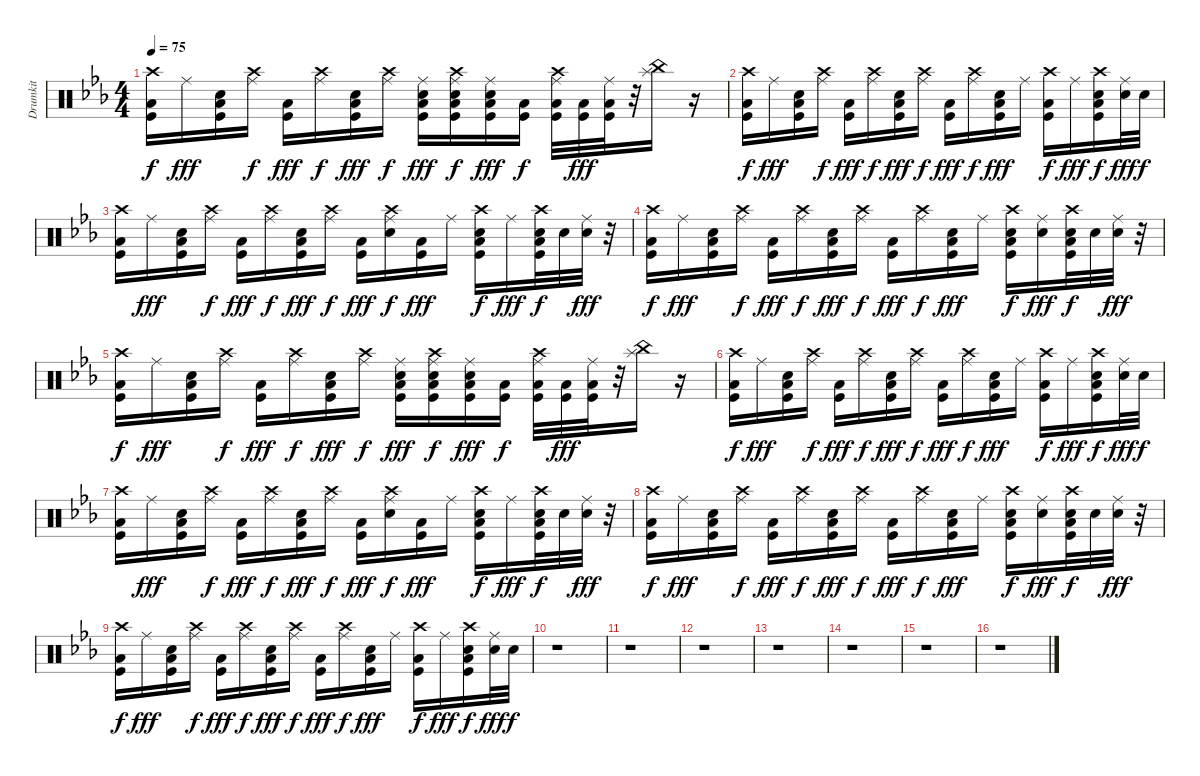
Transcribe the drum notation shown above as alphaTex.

\track ("Drumkit" "Drumkit") {instrument percussion}
\staff {score}
\articulation defaults
\ts (4 4)
\tempo 75
\clef neutral
\ks eb
("Crash high (hit)" "Low Floor Tom (hit)" "Kick (hit)").16{dy f} "Ride (middle)".16{dy fff} ("Low Floor Tom (hit)" "Snare (hit) 2" "Kick (hit)").16 ("Crash high (hit)" "Ride (middle)").16{dy f} ("Low Floor Tom (hit)" "Kick (hit)").16{dy fff} ("Crash high (hit)" "Ride (middle)").16{dy f} ("Low Floor Tom (hit)" "Snare (hit) 2" "Kick (hit)").16{dy fff} ("Crash high (hit)" "Ride (middle)").16{dy f} ("Ride (middle)" "Low Floor Tom (hit)" "Snare (hit) 2" "Kick (hit)").16{dy fff} ("Crash high (hit)" "Ride (middle)" "Low Floor Tom (hit)" "Snare (hit) 2" "Kick (hit)").16{dy f} ("Ride (middle)" "Low Floor Tom (hit)" "Snare (hit) 2" "Kick (hit)").16{dy fff} ("Low Floor Tom (hit)" "Kick (hit)").16{dy f} ("Crash high (hit)" "Ride (middle)" "Low Floor Tom (hit)" "Kick (hit)").32 ("Low Floor Tom (hit)" "Kick (hit)").32{dy fff} ("Ride (middle)" "Low Floor Tom (hit)" "Kick (hit)").32 r.32 ("Splash (hit)" "China (hit)").16 r.16 |
("Crash high (hit)" "Low Floor Tom (hit)" "Kick (hit)").16{dy f} "Ride (middle)".16{dy fff} ("Low Floor Tom (hit)" "Snare (hit) 2" "Kick (hit)").16 ("Crash high (hit)" "Ride (middle)").16{dy f} ("Low Floor Tom (hit)" "Kick (hit)").16{dy fff} ("Crash high (hit)" "Ride (middle)").16{dy f} ("Low Floor Tom (hit)" "Snare (hit) 2" "Kick (hit)").16{dy fff} ("Crash high (hit)" "Ride (middle)").16{dy f} ("Low Floor Tom (hit)" "Kick (hit)").16{dy fff} ("Crash high (hit)" "Ride (middle)").16{dy f} ("Low Floor Tom (hit)" "Snare (hit) 2" "Kick (hit)").16{dy fff} "Ride (middle)".16 ("Crash high (hit)" "Low Floor Tom (hit)" "Kick (hit)").16{dy f} "Ride (middle)".16{dy fff} ("Crash high (hit)" "Low Floor Tom (hit)" "Snare (hit) 2" "Kick (hit)").16{dy f} ("Ride (middle)" "Snare (hit) 2").32{dy fff} "Snare (hit) 2".32{dy f} |
("Crash high (hit)" "Low Floor Tom (hit)" "Kick (hit)").16 "Ride (middle)".16{dy fff} ("Low Floor Tom (hit)" "Snare (hit) 2" "Kick (hit)").16 ("Crash high (hit)" "Ride (middle)").16{dy f} ("Low Floor Tom (hit)" "Kick (hit)").16{dy fff} ("Crash high (hit)" "Ride (middle)").16{dy f} ("Low Floor Tom (hit)" "Snare (hit) 2" "Kick (hit)").16{dy fff} ("Crash high (hit)" "Ride (middle)").16{dy f} ("Low Floor Tom (hit)" "Kick (hit)").16{dy fff} ("Crash high (hit)" "Ride (middle)" "Snare (hit) 2").16{dy f} ("Low Floor Tom (hit)" "Kick (hit)").16{dy fff} "Ride (middle)".16 ("Crash high (hit)" "Low Floor Tom (hit)" "Snare (hit) 2" "Kick (hit)").16{dy f} "Ride (middle)".16{dy fff} ("Crash high (hit)" "Low Floor Tom (hit)" "Snare (hit) 2" "Kick (hit)").32{dy f} "Snare (hit) 2".32 ("Ride (middle)" "Snare (hit) 2").32{dy fff} r.32 |
("Crash high (hit)" "Low Floor Tom (hit)" "Kick (hit)").16{dy f} "Ride (middle)".16{dy fff} ("Low Floor Tom (hit)" "Snare (hit) 2" "Kick (hit)").16 ("Crash high (hit)" "Ride (middle)").16{dy f} ("Low Floor Tom (hit)" "Kick (hit)").16{dy fff} ("Crash high (hit)" "Ride (middle)").16{dy f} ("Low Floor Tom (hit)" "Snare (hit) 2" "Kick (hit)").16{dy fff} ("Crash high (hit)" "Ride (middle)").16{dy f} ("Low Floor Tom (hit)" "Kick (hit)").16{dy fff} ("Crash high (hit)" "Ride (middle)").16{dy f} ("Low Floor Tom (hit)" "Snare (hit) 2" "Kick (hit)").16{dy fff} "Ride (middle)".16 ("Crash high (hit)" "Low Floor Tom (hit)" "Snare (hit) 2" "Kick (hit)").16{dy f} ("Ride (middle)" "Snare (hit) 2").16{dy fff} ("Crash high (hit)" "Low Floor Tom (hit)" "Snare (hit) 2" "Kick (hit)").32{dy f} "Snare (hit) 2".32 ("Ride (middle)" "Snare (hit) 2").32{dy fff} r.32 |
("Crash high (hit)" "Low Floor Tom (hit)" "Kick (hit)").16{dy f} "Ride (middle)".16{dy fff} ("Low Floor Tom (hit)" "Snare (hit) 2" "Kick (hit)").16 ("Crash high (hit)" "Ride (middle)").16{dy f} ("Low Floor Tom (hit)" "Kick (hit)").16{dy fff} ("Crash high (hit)" "Ride (middle)").16{dy f} ("Low Floor Tom (hit)" "Snare (hit) 2" "Kick (hit)").16{dy fff} ("Crash high (hit)" "Ride (middle)").16{dy f} ("Ride (middle)" "Low Floor Tom (hit)" "Snare (hit) 2" "Kick (hit)").16{dy fff} ("Crash high (hit)" "Ride (middle)" "Low Floor Tom (hit)" "Snare (hit) 2" "Kick (hit)").16{dy f} ("Ride (middle)" "Low Floor Tom (hit)" "Snare (hit) 2" "Kick (hit)").16{dy fff} ("Low Floor Tom (hit)" "Kick (hit)").16{dy f} ("Crash high (hit)" "Ride (middle)" "Low Floor Tom (hit)" "Kick (hit)").32 ("Low Floor Tom (hit)" "Kick (hit)").32{dy fff} ("Ride (middle)" "Low Floor Tom (hit)" "Kick (hit)").32 r.32 ("Splash (hit)" "China (hit)").16 r.16 |
("Crash high (hit)" "Low Floor Tom (hit)" "Kick (hit)").16{dy f} "Ride (middle)".16{dy fff} ("Low Floor Tom (hit)" "Snare (hit) 2" "Kick (hit)").16 ("Crash high (hit)" "Ride (middle)").16{dy f} ("Low Floor Tom (hit)" "Kick (hit)").16{dy fff} ("Crash high (hit)" "Ride (middle)").16{dy f} ("Low Floor Tom (hit)" "Snare (hit) 2" "Kick (hit)").16{dy fff} ("Crash high (hit)" "Ride (middle)").16{dy f} ("Low Floor Tom (hit)" "Kick (hit)").16{dy fff} ("Crash high (hit)" "Ride (middle)").16{dy f} ("Low Floor Tom (hit)" "Snare (hit) 2" "Kick (hit)").16{dy fff} "Ride (middle)".16 ("Crash high (hit)" "Low Floor Tom (hit)" "Kick (hit)").16{dy f} "Ride (middle)".16{dy fff} ("Crash high (hit)" "Low Floor Tom (hit)" "Snare (hit) 2" "Kick (hit)").16{dy f} ("Ride (middle)" "Snare (hit) 2").32{dy fff} "Snare (hit) 2".32{dy f} |
("Crash high (hit)" "Low Floor Tom (hit)" "Kick (hit)").16 "Ride (middle)".16{dy fff} ("Low Floor Tom (hit)" "Snare (hit) 2" "Kick (hit)").16 ("Crash high (hit)" "Ride (middle)").16{dy f} ("Low Floor Tom (hit)" "Kick (hit)").16{dy fff} ("Crash high (hit)" "Ride (middle)").16{dy f} ("Low Floor Tom (hit)" "Snare (hit) 2" "Kick (hit)").16{dy fff} ("Crash high (hit)" "Ride (middle)").16{dy f} ("Low Floor Tom (hit)" "Kick (hit)").16{dy fff} ("Crash high (hit)" "Ride (middle)" "Snare (hit) 2").16{dy f} ("Low Floor Tom (hit)" "Kick (hit)").16{dy fff} "Ride (middle)".16 ("Crash high (hit)" "Low Floor Tom (hit)" "Snare (hit) 2" "Kick (hit)").16{dy f} "Ride (middle)".16{dy fff} ("Crash high (hit)" "Low Floor Tom (hit)" "Snare (hit) 2" "Kick (hit)").32{dy f} "Snare (hit) 2".32 ("Ride (middle)" "Snare (hit) 2").32{dy fff} r.32 |
("Crash high (hit)" "Low Floor Tom (hit)" "Kick (hit)").16{dy f} "Ride (middle)".16{dy fff} ("Low Floor Tom (hit)" "Snare (hit) 2" "Kick (hit)").16 ("Crash high (hit)" "Ride (middle)").16{dy f} ("Low Floor Tom (hit)" "Kick (hit)").16{dy fff} ("Crash high (hit)" "Ride (middle)").16{dy f} ("Low Floor Tom (hit)" "Snare (hit) 2" "Kick (hit)").16{dy fff} ("Crash high (hit)" "Ride (middle)").16{dy f} ("Low Floor Tom (hit)" "Kick (hit)").16{dy fff} ("Crash high (hit)" "Ride (middle)").16{dy f} ("Low Floor Tom (hit)" "Snare (hit) 2" "Kick (hit)").16{dy fff} "Ride (middle)".16 ("Crash high (hit)" "Low Floor Tom (hit)" "Snare (hit) 2" "Kick (hit)").16{dy f} ("Ride (middle)" "Snare (hit) 2").16{dy fff} ("Crash high (hit)" "Low Floor Tom (hit)" "Snare (hit) 2" "Kick (hit)").32{dy f} "Snare (hit) 2".32 ("Ride (middle)" "Snare (hit) 2").32{dy fff} r.32 |
("Crash high (hit)" "Low Floor Tom (hit)" "Kick (hit)").16{dy f} "Ride (middle)".16{dy fff} ("Low Floor Tom (hit)" "Snare (hit) 2" "Kick (hit)").16 ("Crash high (hit)" "Ride (middle)").16{dy f} ("Low Floor Tom (hit)" "Kick (hit)").16{dy fff} ("Crash high (hit)" "Ride (middle)").16{dy f} ("Low Floor Tom (hit)" "Snare (hit) 2" "Kick (hit)").16{dy fff} ("Crash high (hit)" "Ride (middle)").16{dy f} ("Low Floor Tom (hit)" "Kick (hit)").16{dy fff} ("Crash high (hit)" "Ride (middle)").16{dy f} ("Low Floor Tom (hit)" "Snare (hit) 2" "Kick (hit)").16{dy fff} "Ride (middle)".16 ("Crash high (hit)" "Low Floor Tom (hit)" "Kick (hit)").16{dy f} "Ride (middle)".16{dy fff} ("Crash high (hit)" "Low Floor Tom (hit)" "Snare (hit) 2" "Kick (hit)").16{dy f} ("Ride (middle)" "Snare (hit) 2").32{dy fff} "Snare (hit) 2".32{dy f} |
r.1 |
r.1 |
r.1 |
r.1 |
r.1 |
r.1 |
r.1
